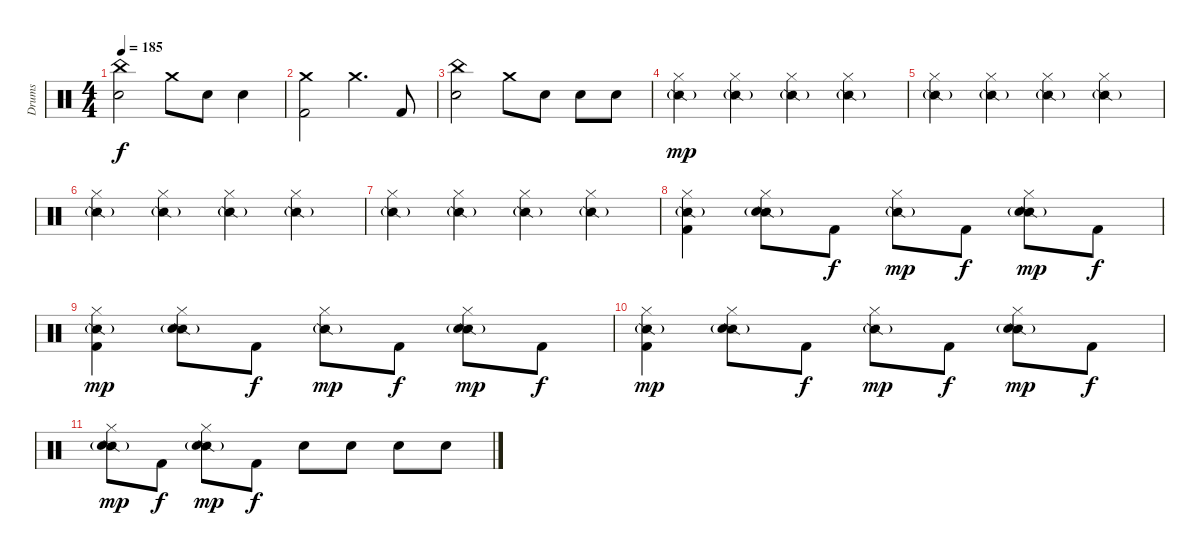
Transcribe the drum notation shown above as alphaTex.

\track ("Drums" "Drums") {instrument percussion}
\staff
\articulation defaults
\ts (4 4)
\tempo 185
\clef neutral
\ks c
("China (hit)" "Electric Snare (hit)").2{dy f} "Crash medium (hit)".8 "Electric Snare (hit)".8 "Electric Snare (hit)".4 |
("Crash medium (hit)" "Kick (hit) 2").2 "Crash medium (hit)".4{d} "Kick (hit) 2".8 |
("China (hit)" "Electric Snare (hit)").2 "Crash medium (hit)".8 "Electric Snare (hit)".8 "Electric Snare (hit)".8 "Electric Snare (hit)".8 |
("Snare (side stick) 2"{g} "Hi-Hat (closed)").4{dy mp} ("Snare (side stick) 2"{g} "Hi-Hat (closed)").4 ("Snare (side stick) 2"{g} "Hi-Hat (closed)").4 ("Snare (side stick) 2"{g} "Hi-Hat (closed)").4 |
("Snare (side stick) 2"{g} "Hi-Hat (closed)").4 ("Snare (side stick) 2"{g} "Hi-Hat (closed)").4 ("Snare (side stick) 2"{g} "Hi-Hat (closed)").4 ("Snare (side stick) 2"{g} "Hi-Hat (closed)").4 |
("Snare (side stick) 2"{g} "Hi-Hat (closed)").4 ("Snare (side stick) 2"{g} "Hi-Hat (closed)").4 ("Snare (side stick) 2"{g} "Hi-Hat (closed)").4 ("Snare (side stick) 2"{g} "Hi-Hat (closed)").4 |
("Snare (side stick) 2"{g} "Hi-Hat (closed)").4 ("Snare (side stick) 2"{g} "Hi-Hat (closed)").4 ("Snare (side stick) 2"{g} "Hi-Hat (closed)").4 ("Snare (side stick) 2"{g} "Hi-Hat (closed)").4 |
("Snare (side stick) 2"{g} "Hi-Hat (closed)" "Kick (hit) 2").4 ("Snare (side stick) 2"{g} "Hi-Hat (closed)" "Electric Snare (hit)").8 "Kick (hit) 2".8{dy f} ("Snare (side stick) 2"{g} "Hi-Hat (closed)").8{dy mp} "Kick (hit) 2".8{dy f} ("Snare (side stick) 2"{g} "Hi-Hat (closed)" "Electric Snare (hit)").8{dy mp} "Kick (hit) 2".8{dy f} |
("Snare (side stick) 2"{g} "Hi-Hat (closed)" "Kick (hit) 2").4{dy mp} ("Snare (side stick) 2"{g} "Hi-Hat (closed)" "Electric Snare (hit)").8 "Kick (hit) 2".8{dy f} ("Snare (side stick) 2"{g} "Hi-Hat (closed)").8{dy mp} "Kick (hit) 2".8{dy f} ("Snare (side stick) 2"{g} "Hi-Hat (closed)" "Electric Snare (hit)").8{dy mp} "Kick (hit) 2".8{dy f} |
("Snare (side stick) 2"{g} "Hi-Hat (closed)" "Kick (hit) 2").4{dy mp} ("Snare (side stick) 2"{g} "Hi-Hat (closed)" "Electric Snare (hit)").8 "Kick (hit) 2".8{dy f} ("Snare (side stick) 2"{g} "Hi-Hat (closed)").8{dy mp} "Kick (hit) 2".8{dy f} ("Snare (side stick) 2"{g} "Hi-Hat (closed)" "Electric Snare (hit)").8{dy mp} "Kick (hit) 2".8{dy f} |
("Snare (side stick) 2"{g} "Hi-Hat (closed)" "Electric Snare (hit)").8{dy mp} "Kick (hit) 2".8{dy f} ("Snare (side stick) 2"{g} "Hi-Hat (closed)" "Electric Snare (hit)").8{dy mp} "Kick (hit) 2".8{dy f} "Electric Snare (hit)".8 "Electric Snare (hit)".8 "Electric Snare (hit)".8 "Electric Snare (hit)".8
